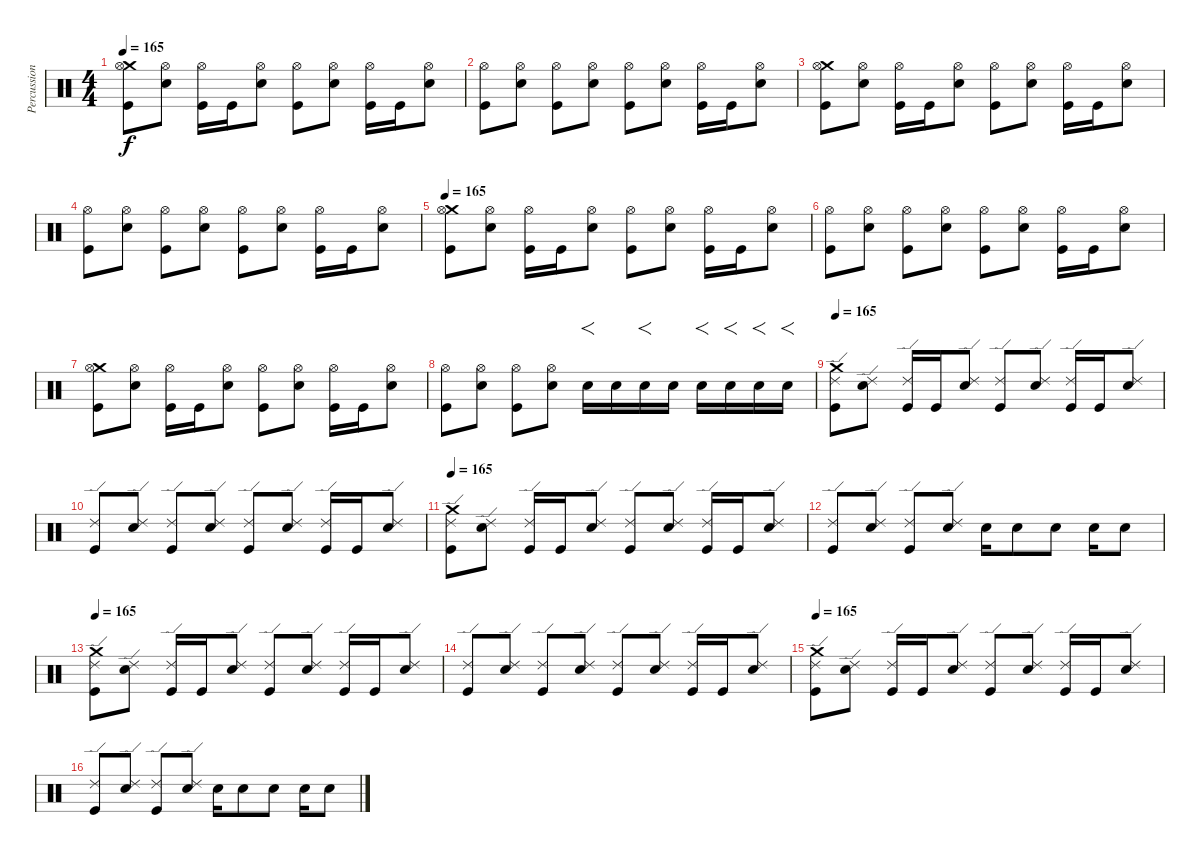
\track ("Percussion" "Percussion") {instrument percussion}
\staff {score}
\articulation defaults
\ts (4 4)
\tempo 165
\clef neutral
\ks c
("Crash medium (hit)" "Hi-Hat (open)" "Kick (hit)").8{dy f} ("Hi-Hat (open)" "Electric Snare (hit)").8 ("Hi-Hat (open)" "Kick (hit)").16 "Kick (hit)".16 ("Hi-Hat (open)" "Electric Snare (hit)").8 ("Hi-Hat (open)" "Kick (hit)").8 ("Hi-Hat (open)" "Electric Snare (hit)").8 ("Hi-Hat (open)" "Kick (hit)").16 "Kick (hit)".16 ("Hi-Hat (open)" "Electric Snare (hit)").8 |
("Hi-Hat (open)" "Kick (hit)").8 ("Hi-Hat (open)" "Electric Snare (hit)").8 ("Hi-Hat (open)" "Kick (hit)").8 ("Hi-Hat (open)" "Electric Snare (hit)").8 ("Hi-Hat (open)" "Kick (hit)").8 ("Hi-Hat (open)" "Electric Snare (hit)").8 ("Hi-Hat (open)" "Kick (hit)").16 "Kick (hit)".16 ("Hi-Hat (open)" "Electric Snare (hit)").8 |
("Crash medium (hit)" "Hi-Hat (open)" "Kick (hit)").8 ("Hi-Hat (open)" "Electric Snare (hit)").8 ("Hi-Hat (open)" "Kick (hit)").16 "Kick (hit)".16 ("Hi-Hat (open)" "Electric Snare (hit)").8 ("Hi-Hat (open)" "Kick (hit)").8 ("Hi-Hat (open)" "Electric Snare (hit)").8 ("Hi-Hat (open)" "Kick (hit)").16 "Kick (hit)".16 ("Hi-Hat (open)" "Electric Snare (hit)").8 |
("Hi-Hat (open)" "Kick (hit)").8 ("Hi-Hat (open)" "Electric Snare (hit)").8 ("Hi-Hat (open)" "Kick (hit)").8 ("Hi-Hat (open)" "Electric Snare (hit)").8 ("Hi-Hat (open)" "Kick (hit)").8 ("Hi-Hat (open)" "Electric Snare (hit)").8 ("Hi-Hat (open)" "Kick (hit)").16 "Kick (hit)".16 ("Hi-Hat (open)" "Electric Snare (hit)").8 |
\tempo 165
("Crash medium (hit)" "Hi-Hat (open)" "Kick (hit)").8 ("Hi-Hat (open)" "Electric Snare (hit)").8 ("Hi-Hat (open)" "Kick (hit)").16 "Kick (hit)".16 ("Hi-Hat (open)" "Electric Snare (hit)").8 ("Hi-Hat (open)" "Kick (hit)").8 ("Hi-Hat (open)" "Electric Snare (hit)").8 ("Hi-Hat (open)" "Kick (hit)").16 "Kick (hit)".16 ("Hi-Hat (open)" "Electric Snare (hit)").8 |
("Hi-Hat (open)" "Kick (hit)").8 ("Hi-Hat (open)" "Electric Snare (hit)").8 ("Hi-Hat (open)" "Kick (hit)").8 ("Hi-Hat (open)" "Electric Snare (hit)").8 ("Hi-Hat (open)" "Kick (hit)").8 ("Hi-Hat (open)" "Electric Snare (hit)").8 ("Hi-Hat (open)" "Kick (hit)").16 "Kick (hit)".16 ("Hi-Hat (open)" "Electric Snare (hit)").8 |
("Crash medium (hit)" "Hi-Hat (open)" "Kick (hit)").8 ("Hi-Hat (open)" "Electric Snare (hit)").8 ("Hi-Hat (open)" "Kick (hit)").16 "Kick (hit)".16 ("Hi-Hat (open)" "Electric Snare (hit)").8 ("Hi-Hat (open)" "Kick (hit)").8 ("Hi-Hat (open)" "Electric Snare (hit)").8 ("Hi-Hat (open)" "Kick (hit)").16 "Kick (hit)".16 ("Hi-Hat (open)" "Electric Snare (hit)").8 |
("Hi-Hat (open)" "Kick (hit)").8 ("Hi-Hat (open)" "Electric Snare (hit)").8 ("Hi-Hat (open)" "Kick (hit)").8 ("Hi-Hat (open)" "Electric Snare (hit)").8 "Electric Snare (hit)".16{f} "Electric Snare (hit)".16 "Electric Snare (hit)".16{f} "Electric Snare (hit)".16 "Electric Snare (hit)".16{f} "Electric Snare (hit)".16{f} "Electric Snare (hit)".16{f} "Electric Snare (hit)".16{f} |
\tempo 165
("Crash medium (hit)" "Ride (edge) 2" "Kick (hit)").8 ("Ride (edge) 2" "Electric Snare (hit)").8 ("Ride (edge) 2" "Kick (hit)").16 "Kick (hit)".16 ("Ride (edge) 2" "Electric Snare (hit)").8 ("Ride (edge) 2" "Kick (hit)").8 ("Ride (edge) 2" "Electric Snare (hit)").8 ("Ride (edge) 2" "Kick (hit)").16 "Kick (hit)".16 ("Ride (edge) 2" "Electric Snare (hit)").8 |
("Ride (edge) 2" "Kick (hit)").8 ("Ride (edge) 2" "Electric Snare (hit)").8 ("Ride (edge) 2" "Kick (hit)").8 ("Ride (edge) 2" "Electric Snare (hit)").8 ("Ride (edge) 2" "Kick (hit)").8 ("Ride (edge) 2" "Electric Snare (hit)").8 ("Ride (edge) 2" "Kick (hit)").16 "Kick (hit)".16 ("Ride (edge) 2" "Electric Snare (hit)").8 |
\tempo 165
("Crash medium (hit)" "Ride (edge) 2" "Kick (hit)").8 ("Ride (edge) 2" "Electric Snare (hit)").8 ("Ride (edge) 2" "Kick (hit)").16 "Kick (hit)".16 ("Ride (edge) 2" "Electric Snare (hit)").8 ("Ride (edge) 2" "Kick (hit)").8 ("Ride (edge) 2" "Electric Snare (hit)").8 ("Ride (edge) 2" "Kick (hit)").16 "Kick (hit)".16 ("Ride (edge) 2" "Electric Snare (hit)").8 |
("Ride (edge) 2" "Kick (hit)").8 ("Ride (edge) 2" "Electric Snare (hit)").8 ("Ride (edge) 2" "Kick (hit)").8 ("Ride (edge) 2" "Electric Snare (hit)").8 "Electric Snare (hit)".16 "Electric Snare (hit)".8 "Electric Snare (hit)".8 "Electric Snare (hit)".16 "Electric Snare (hit)".8 |
\tempo 165
("Crash medium (hit)" "Ride (edge) 2" "Kick (hit)").8 ("Ride (edge) 2" "Electric Snare (hit)").8 ("Ride (edge) 2" "Kick (hit)").16 "Kick (hit)".16 ("Ride (edge) 2" "Electric Snare (hit)").8 ("Ride (edge) 2" "Kick (hit)").8 ("Ride (edge) 2" "Electric Snare (hit)").8 ("Ride (edge) 2" "Kick (hit)").16 "Kick (hit)".16 ("Ride (edge) 2" "Electric Snare (hit)").8 |
("Ride (edge) 2" "Kick (hit)").8 ("Ride (edge) 2" "Electric Snare (hit)").8 ("Ride (edge) 2" "Kick (hit)").8 ("Ride (edge) 2" "Electric Snare (hit)").8 ("Ride (edge) 2" "Kick (hit)").8 ("Ride (edge) 2" "Electric Snare (hit)").8 ("Ride (edge) 2" "Kick (hit)").16 "Kick (hit)".16 ("Ride (edge) 2" "Electric Snare (hit)").8 |
\tempo 165
("Crash medium (hit)" "Ride (edge) 2" "Kick (hit)").8 ("Ride (edge) 2" "Electric Snare (hit)").8 ("Ride (edge) 2" "Kick (hit)").16 "Kick (hit)".16 ("Ride (edge) 2" "Electric Snare (hit)").8 ("Ride (edge) 2" "Kick (hit)").8 ("Ride (edge) 2" "Electric Snare (hit)").8 ("Ride (edge) 2" "Kick (hit)").16 "Kick (hit)".16 ("Ride (edge) 2" "Electric Snare (hit)").8 |
("Ride (edge) 2" "Kick (hit)").8 ("Ride (edge) 2" "Electric Snare (hit)").8 ("Ride (edge) 2" "Kick (hit)").8 ("Ride (edge) 2" "Electric Snare (hit)").8 "Electric Snare (hit)".16 "Electric Snare (hit)".8 "Electric Snare (hit)".8 "Electric Snare (hit)".16 "Electric Snare (hit)".8
